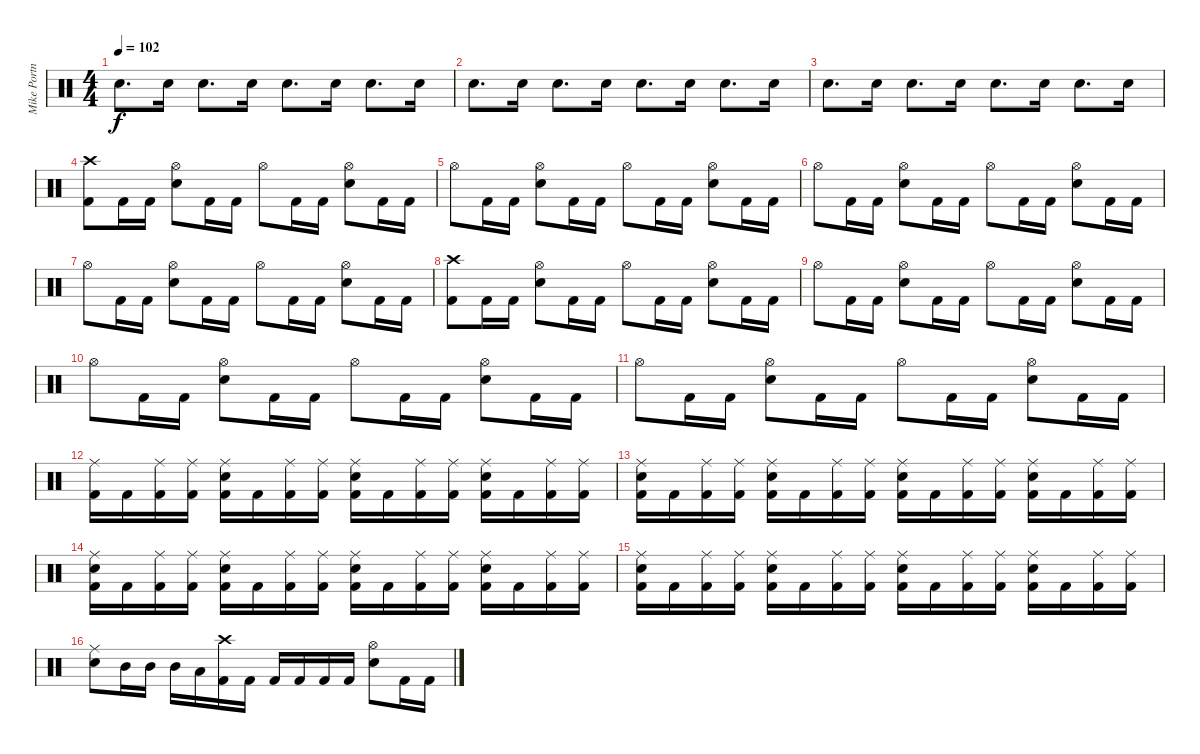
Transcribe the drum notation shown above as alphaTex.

\track ("Mike Portnoy Drum " "Mike Portn") {instrument percussion}
\staff {score}
\articulation defaults
\ts (4 4)
\tempo 102
\clef neutral
\ks c "Electric Snare (hit)".8{d dy f} "Electric Snare (hit)".16 "Electric Snare (hit)".8{d} "Electric Snare (hit)".16 "Electric Snare (hit)".8{d} "Electric Snare (hit)".16 "Electric Snare (hit)".8{d} "Electric Snare (hit)".16
|
"Electric Snare (hit)".8{d} "Electric Snare (hit)".16 "Electric Snare (hit)".8{d} "Electric Snare (hit)".16 "Electric Snare (hit)".8{d} "Electric Snare (hit)".16 "Electric Snare (hit)".8{d} "Electric Snare (hit)".16 |
"Electric Snare (hit)".8{d} "Electric Snare (hit)".16 "Electric Snare (hit)".8{d} "Electric Snare (hit)".16 "Electric Snare (hit)".8{d} "Electric Snare (hit)".16 "Electric Snare (hit)".8{d} "Electric Snare (hit)".16 |
("Crash high (hit)" "Kick (hit) 2").8 "Kick (hit) 2".16 "Kick (hit) 2".16 ("Hi-Hat (open)" "Electric Snare (hit)").8 "Kick (hit) 2".16 "Kick (hit) 2".16 "Hi-Hat (open)".8 "Kick (hit) 2".16 "Kick (hit) 2".16 ("Hi-Hat (open)" "Electric Snare (hit)").8 "Kick (hit) 2".16 "Kick (hit) 2".16 |
"Hi-Hat (open)".8 "Kick (hit) 2".16 "Kick (hit) 2".16 ("Hi-Hat (open)" "Electric Snare (hit)").8 "Kick (hit) 2".16 "Kick (hit) 2".16 "Hi-Hat (open)".8 "Kick (hit) 2".16 "Kick (hit) 2".16 ("Hi-Hat (open)" "Electric Snare (hit)").8 "Kick (hit) 2".16 "Kick (hit) 2".16 |
"Hi-Hat (open)".8 "Kick (hit) 2".16 "Kick (hit) 2".16 ("Hi-Hat (open)" "Electric Snare (hit)").8 "Kick (hit) 2".16 "Kick (hit) 2".16 "Hi-Hat (open)".8 "Kick (hit) 2".16 "Kick (hit) 2".16 ("Hi-Hat (open)" "Electric Snare (hit)").8 "Kick (hit) 2".16 "Kick (hit) 2".16 |
"Hi-Hat (open)".8 "Kick (hit) 2".16 "Kick (hit) 2".16 ("Hi-Hat (open)" "Electric Snare (hit)").8 "Kick (hit) 2".16 "Kick (hit) 2".16 "Hi-Hat (open)".8 "Kick (hit) 2".16 "Kick (hit) 2".16 ("Hi-Hat (open)" "Electric Snare (hit)").8 "Kick (hit) 2".16 "Kick (hit) 2".16 |
("Crash high (hit)" "Kick (hit) 2").8 "Kick (hit) 2".16 "Kick (hit) 2".16 ("Hi-Hat (open)" "Electric Snare (hit)").8 "Kick (hit) 2".16 "Kick (hit) 2".16 "Hi-Hat (open)".8 "Kick (hit) 2".16 "Kick (hit) 2".16 ("Hi-Hat (open)" "Electric Snare (hit)").8 "Kick (hit) 2".16 "Kick (hit) 2".16 |
"Hi-Hat (open)".8 "Kick (hit) 2".16 "Kick (hit) 2".16 ("Hi-Hat (open)" "Electric Snare (hit)").8 "Kick (hit) 2".16 "Kick (hit) 2".16 "Hi-Hat (open)".8 "Kick (hit) 2".16 "Kick (hit) 2".16 ("Hi-Hat (open)" "Electric Snare (hit)").8 "Kick (hit) 2".16 "Kick (hit) 2".16 |
"Hi-Hat (open)".8 "Kick (hit) 2".16 "Kick (hit) 2".16 ("Hi-Hat (open)" "Electric Snare (hit)").8 "Kick (hit) 2".16 "Kick (hit) 2".16 "Hi-Hat (open)".8 "Kick (hit) 2".16 "Kick (hit) 2".16 ("Hi-Hat (open)" "Electric Snare (hit)").8 "Kick (hit) 2".16 "Kick (hit) 2".16 |
"Hi-Hat (open)".8 "Kick (hit) 2".16 "Kick (hit) 2".16 ("Hi-Hat (open)" "Electric Snare (hit)").8 "Kick (hit) 2".16 "Kick (hit) 2".16 "Hi-Hat (open)".8 "Kick (hit) 2".16 "Kick (hit) 2".16 ("Hi-Hat (open)" "Electric Snare (hit)").8 "Kick (hit) 2".16 "Kick (hit) 2".16 |
("Ride (middle)" "Kick (hit) 2").16 "Kick (hit) 2".16 ("Ride (middle)" "Kick (hit) 2").16 ("Ride (middle)" "Kick (hit) 2").16 ("Ride (middle)" "Electric Snare (hit)" "Kick (hit) 2").16 "Kick (hit) 2".16 ("Ride (middle)" "Kick (hit) 2").16 ("Ride (middle)" "Kick (hit) 2").16 ("Ride (middle)" "Electric Snare (hit)" "Kick (hit) 2").16 "Kick (hit) 2".16 ("Ride (middle)" "Kick (hit) 2").16 ("Ride (middle)" "Kick (hit) 2").16 ("Ride (middle)" "Electric Snare (hit)" "Kick (hit) 2").16 "Kick (hit) 2".16 ("Ride (middle)" "Kick (hit) 2").16 ("Ride (middle)" "Kick (hit) 2").16 |
("Ride (middle)" "Electric Snare (hit)" "Kick (hit) 2").16 "Kick (hit) 2".16 ("Ride (middle)" "Kick (hit) 2").16 ("Ride (middle)" "Kick (hit) 2").16 ("Ride (middle)" "Electric Snare (hit)" "Kick (hit) 2").16 "Kick (hit) 2".16 ("Ride (middle)" "Kick (hit) 2").16 ("Ride (middle)" "Kick (hit) 2").16 ("Ride (middle)" "Electric Snare (hit)" "Kick (hit) 2").16 "Kick (hit) 2".16 ("Ride (middle)" "Kick (hit) 2").16 ("Ride (middle)" "Kick (hit) 2").16 ("Ride (middle)" "Electric Snare (hit)" "Kick (hit) 2").16 "Kick (hit) 2".16 ("Ride (middle)" "Kick (hit) 2").16 ("Ride (middle)" "Kick (hit) 2").16 |
("Ride (middle)" "Electric Snare (hit)" "Kick (hit) 2").16 "Kick (hit) 2".16 ("Ride (middle)" "Kick (hit) 2").16 ("Ride (middle)" "Kick (hit) 2").16 ("Ride (middle)" "Electric Snare (hit)" "Kick (hit) 2").16 "Kick (hit) 2".16 ("Ride (middle)" "Kick (hit) 2").16 ("Ride (middle)" "Kick (hit) 2").16 ("Ride (middle)" "Electric Snare (hit)" "Kick (hit) 2").16 "Kick (hit) 2".16 ("Ride (middle)" "Kick (hit) 2").16 ("Ride (middle)" "Kick (hit) 2").16 ("Ride (middle)" "Electric Snare (hit)" "Kick (hit) 2").16 "Kick (hit) 2".16 ("Ride (middle)" "Kick (hit) 2").16 ("Ride (middle)" "Kick (hit) 2").16 |
("Ride (middle)" "Electric Snare (hit)" "Kick (hit) 2").16 "Kick (hit) 2".16 ("Ride (middle)" "Kick (hit) 2").16 ("Ride (middle)" "Kick (hit) 2").16 ("Ride (middle)" "Electric Snare (hit)" "Kick (hit) 2").16 "Kick (hit) 2".16 ("Ride (middle)" "Kick (hit) 2").16 ("Ride (middle)" "Kick (hit) 2").16 ("Ride (middle)" "Electric Snare (hit)" "Kick (hit) 2").16 "Kick (hit) 2".16 ("Ride (middle)" "Kick (hit) 2").16 ("Ride (middle)" "Kick (hit) 2").16 ("Ride (middle)" "Electric Snare (hit)" "Kick (hit) 2").16 "Kick (hit) 2".16 ("Ride (middle)" "Kick (hit) 2").16 ("Ride (middle)" "Kick (hit) 2").16 |
("Ride (middle)" "Electric Snare (hit)").8 "Mid Tom (hit)".16 "Mid Tom (hit)".16 "Mid Tom (hit)".16 "Low Tom (hit)".16 ("Crash high (hit)" "Kick (hit) 2").16 "Kick (hit) 2".16 "Kick (hit) 2".16 "Kick (hit) 2".16 "Kick (hit) 2".16 "Kick (hit) 2".16 ("Hi-Hat (open)" "Electric Snare (hit)").8 "Kick (hit) 2".16 "Kick (hit) 2".16
